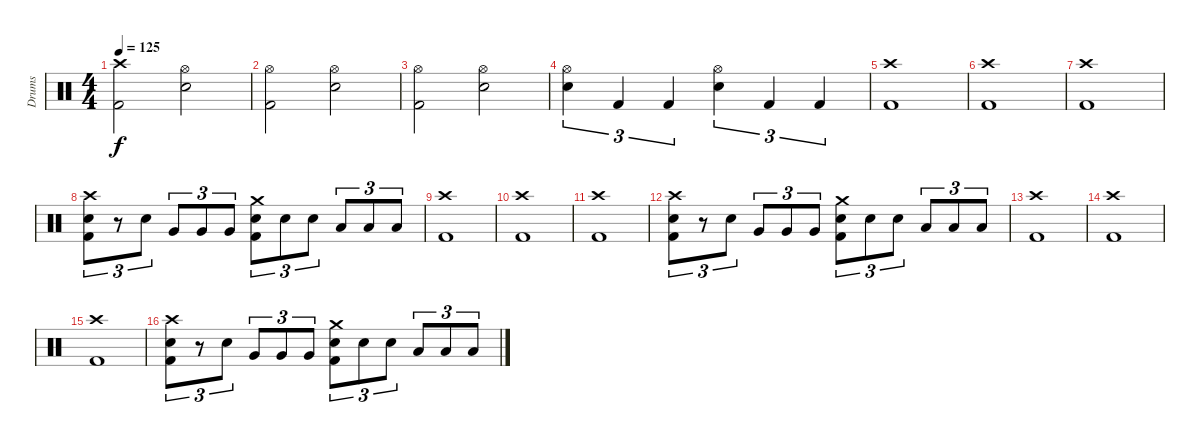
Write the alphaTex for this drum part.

\track ("Drums" "Drums") {instrument percussion}
\staff {score}
\articulation defaults
\ts (4 4)
\tempo 125
\clef neutral
\ks c
("Crash high (hit)" "Kick (hit) 2").2{dy f} ("Hi-Hat (open)" "Snare (hit) 2").2 |
("Hi-Hat (open)" "Kick (hit) 2").2 ("Hi-Hat (open)" "Snare (hit) 2").2 |
("Hi-Hat (open)" "Kick (hit) 2").2 ("Hi-Hat (open)" "Snare (hit) 2").2 |
("Hi-Hat (open)" "Snare (hit) 2").4{tu (3 2)} "Kick (hit) 2".4{tu (3 2)} "Kick (hit) 2".4{tu (3 2)} ("Hi-Hat (open)" "Snare (hit) 2").4{tu (3 2)} "Kick (hit) 2".4{tu (3 2)} "Kick (hit) 2".4{tu (3 2)} |
("Crash high (hit)" "Kick (hit) 2").1 |
("Crash high (hit)" "Kick (hit) 2").1 |
("Crash high (hit)" "Kick (hit) 2").1 |
("Crash high (hit)" "Snare (hit) 2" "Kick (hit) 2").8{tu (3 2)} r.8{tu (3 2)} "Snare (hit) 2".8{tu (3 2)} "Very Low Tom (hit)".8{tu (3 2)} "Very Low Tom (hit)".8{tu (3 2)} "Very Low Tom (hit)".8{tu (3 2)} ("Crash medium (hit)" "Snare (hit) 2" "Kick (hit) 2").8{tu (3 2)} "Snare (hit) 2".8{tu (3 2)} "Snare (hit) 2".8{tu (3 2)} "Low Floor Tom (hit)".8{tu (3 2)} "Low Floor Tom (hit)".8{tu (3 2)} "Low Floor Tom (hit)".8{tu (3 2)} |
("Crash high (hit)" "Kick (hit) 2").1 |
("Crash high (hit)" "Kick (hit) 2").1 |
("Crash high (hit)" "Kick (hit) 2").1 |
("Crash high (hit)" "Snare (hit) 2" "Kick (hit) 2").8{tu (3 2)} r.8{tu (3 2)} "Snare (hit) 2".8{tu (3 2)} "Very Low Tom (hit)".8{tu (3 2)} "Very Low Tom (hit)".8{tu (3 2)} "Very Low Tom (hit)".8{tu (3 2)} ("Crash medium (hit)" "Snare (hit) 2" "Kick (hit) 2").8{tu (3 2)} "Snare (hit) 2".8{tu (3 2)} "Snare (hit) 2".8{tu (3 2)} "Low Floor Tom (hit)".8{tu (3 2)} "Low Floor Tom (hit)".8{tu (3 2)} "Low Floor Tom (hit)".8{tu (3 2)} |
("Crash high (hit)" "Kick (hit) 2").1 |
("Crash high (hit)" "Kick (hit) 2").1 |
("Crash high (hit)" "Kick (hit) 2").1 |
("Crash high (hit)" "Snare (hit) 2" "Kick (hit) 2").8{tu (3 2)} r.8{tu (3 2)} "Snare (hit) 2".8{tu (3 2)} "Very Low Tom (hit)".8{tu (3 2)} "Very Low Tom (hit)".8{tu (3 2)} "Very Low Tom (hit)".8{tu (3 2)} ("Crash medium (hit)" "Snare (hit) 2" "Kick (hit) 2").8{tu (3 2)} "Snare (hit) 2".8{tu (3 2)} "Snare (hit) 2".8{tu (3 2)} "Low Floor Tom (hit)".8{tu (3 2)} "Low Floor Tom (hit)".8{tu (3 2)} "Low Floor Tom (hit)".8{tu (3 2)}
